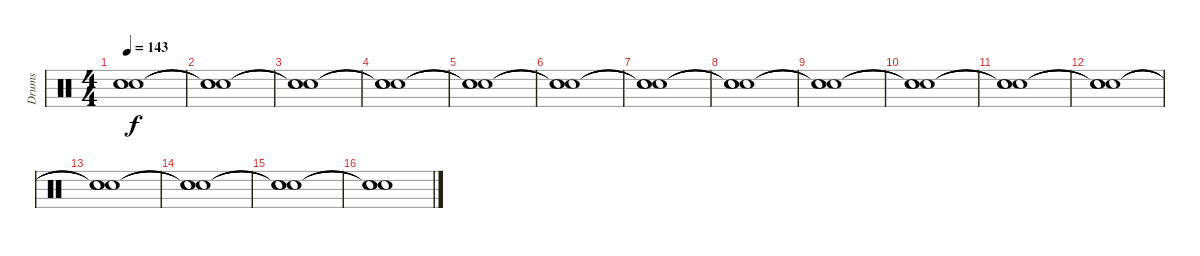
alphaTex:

\track ("Drums               " "Drums     ") {instrument percussion}
\staff {score}
\articulation defaults
\ts (4 4)
\tempo 143
\clef neutral
\ks c
("Snare (hit)"{t} "Snare (hit)"{t} "Snare (hit)"{t}).1{dy f} |
("Snare (hit)"{t} "Snare (hit)"{t} "Snare (hit)"{t}).1 |
("Snare (hit)"{t} "Snare (hit)"{t} "Snare (hit)"{t}).1 |
("Snare (hit)"{t} "Snare (hit)"{t} "Snare (hit)"{t}).1 |
("Snare (hit)"{t} "Snare (hit)"{t} "Snare (hit)"{t}).1 |
("Snare (hit)"{t} "Snare (hit)"{t} "Snare (hit)"{t}).1 |
("Snare (hit)"{t} "Snare (hit)"{t} "Snare (hit)"{t}).1 |
("Snare (hit)"{t} "Snare (hit)"{t} "Snare (hit)"{t}).1 |
("Snare (hit)"{t} "Snare (hit)"{t} "Snare (hit)"{t}).1 |
("Snare (hit)"{t} "Snare (hit)"{t} "Snare (hit)"{t}).1 |
("Snare (hit)"{t} "Snare (hit)"{t} "Snare (hit)"{t}).1 |
("Snare (hit)"{t} "Snare (hit)"{t} "Snare (hit)"{t}).1 |
("Snare (hit)"{t} "Snare (hit)"{t} "Snare (hit)"{t}).1 |
("Snare (hit)"{t} "Snare (hit)"{t} "Snare (hit)"{t}).1 |
("Snare (hit)"{t} "Snare (hit)"{t} "Snare (hit)"{t}).1 |
("Snare (hit)"{t} "Snare (hit)"{t} "Snare (hit)"{t}).1
